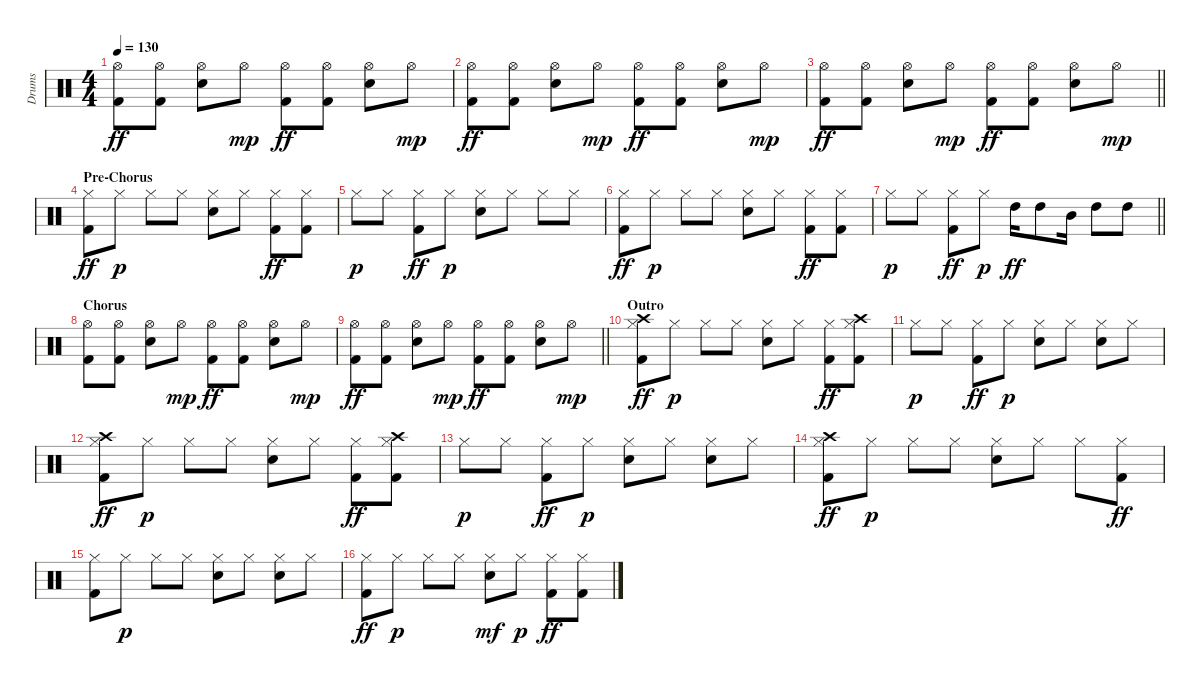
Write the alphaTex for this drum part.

\track ("Drums" "Drums") {instrument percussion}
\staff
\articulation defaults
\ts (4 4)
\tempo 130
\clef neutral
\ks c
("Hi-Hat (open)" "Kick (hit) 2").8{dy ff} ("Hi-Hat (open)" "Kick (hit) 2").8 ("Hi-Hat (open)" "Snare (hit) 2").8 "Hi-Hat (open)".8{dy mp} ("Hi-Hat (open)" "Kick (hit) 2").8{dy ff} ("Hi-Hat (open)" "Kick (hit) 2").8 ("Hi-Hat (open)" "Snare (hit) 2").8 "Hi-Hat (open)".8{dy mp} |
("Hi-Hat (open)" "Kick (hit) 2").8{dy ff} ("Hi-Hat (open)" "Kick (hit) 2").8 ("Hi-Hat (open)" "Snare (hit) 2").8 "Hi-Hat (open)".8{dy mp} ("Hi-Hat (open)" "Kick (hit) 2").8{dy ff} ("Hi-Hat (open)" "Kick (hit) 2").8 ("Hi-Hat (open)" "Snare (hit) 2").8 "Hi-Hat (open)".8{dy mp} |
\barLineRight lightlight
("Hi-Hat (open)" "Kick (hit) 2").8{dy ff} ("Hi-Hat (open)" "Kick (hit) 2").8 ("Hi-Hat (open)" "Snare (hit) 2").8 "Hi-Hat (open)".8{dy mp} ("Hi-Hat (open)" "Kick (hit) 2").8{dy ff} ("Hi-Hat (open)" "Kick (hit) 2").8 ("Hi-Hat (open)" "Snare (hit) 2").8 "Hi-Hat (open)".8{dy mp} |
\section ("" "Pre-Chorus")
("Hi-Hat (closed)" "Kick (hit) 2").8{dy ff} "Hi-Hat (closed)".8{dy p} "Hi-Hat (closed)".8 "Hi-Hat (closed)".8 ("Hi-Hat (closed)" "Snare (hit) 2").8 "Hi-Hat (closed)".8 ("Hi-Hat (closed)" "Kick (hit) 2").8{dy ff} ("Hi-Hat (closed)" "Kick (hit) 2").8 |
"Hi-Hat (closed)".8{dy p} "Hi-Hat (closed)".8 ("Hi-Hat (closed)" "Kick (hit) 2").8{dy ff} "Hi-Hat (closed)".8{dy p} ("Hi-Hat (closed)" "Snare (hit) 2").8 "Hi-Hat (closed)".8 "Hi-Hat (closed)".8 "Hi-Hat (closed)".8 |
("Hi-Hat (closed)" "Kick (hit) 2").8{dy ff} "Hi-Hat (closed)".8{dy p} "Hi-Hat (closed)".8 "Hi-Hat (closed)".8 ("Hi-Hat (closed)" "Snare (hit) 2").8 "Hi-Hat (closed)".8 ("Hi-Hat (closed)" "Kick (hit) 2").8{dy ff} ("Hi-Hat (closed)" "Kick (hit) 2").8 |
\barLineRight lightlight "Hi-Hat (closed)".8{dy p} "Hi-Hat (closed)".8
("Hi-Hat (closed)" "Kick (hit) 2").8{dy ff} "Hi-Hat (closed)".8{dy p} "High Tom (hit)".16{dy ff} "High Tom (hit)".8 "Mid Tom (hit)".16 "High Tom (hit)".8 "High Tom (hit)".8 |
\section ("" "Chorus")
("Hi-Hat (open)" "Kick (hit) 2").8 ("Hi-Hat (open)" "Kick (hit) 2").8 ("Hi-Hat (open)" "Snare (hit) 2").8 "Hi-Hat (open)".8{dy mp} ("Hi-Hat (open)" "Kick (hit) 2").8{dy ff} ("Hi-Hat (open)" "Kick (hit) 2").8 ("Hi-Hat (open)" "Snare (hit) 2").8 "Hi-Hat (open)".8{dy mp} |
\barLineRight lightlight
("Hi-Hat (open)" "Kick (hit) 2").8{dy ff} ("Hi-Hat (open)" "Kick (hit) 2").8 ("Hi-Hat (open)" "Snare (hit) 2").8 "Hi-Hat (open)".8{dy mp} ("Hi-Hat (open)" "Kick (hit) 2").8{dy ff} ("Hi-Hat (open)" "Kick (hit) 2").8 ("Hi-Hat (open)" "Snare (hit) 2").8 "Hi-Hat (open)".8{dy mp} |
\section ("" "Outro")
("Crash high (hit)" "Hi-Hat (closed)" "Kick (hit) 2").8{dy ff} "Hi-Hat (closed)".8{dy p} "Hi-Hat (closed)".8 "Hi-Hat (closed)".8 ("Hi-Hat (closed)" "Snare (hit) 2").8 "Hi-Hat (closed)".8 ("Hi-Hat (closed)" "Kick (hit) 2").8{dy ff} ("Crash high (hit)" "Hi-Hat (closed)" "Kick (hit) 2").8 |
"Hi-Hat (closed)".8{dy p} "Hi-Hat (closed)".8 ("Hi-Hat (closed)" "Kick (hit) 2").8{dy ff} "Hi-Hat (closed)".8{dy p} ("Hi-Hat (closed)" "Snare (hit) 2").8 "Hi-Hat (closed)".8 ("Hi-Hat (closed)" "Snare (hit) 2").8 "Hi-Hat (closed)".8 |
("Crash high (hit)" "Hi-Hat (closed)" "Kick (hit) 2").8{dy ff} "Hi-Hat (closed)".8{dy p} "Hi-Hat (closed)".8 "Hi-Hat (closed)".8 ("Hi-Hat (closed)" "Snare (hit) 2").8 "Hi-Hat (closed)".8 ("Hi-Hat (closed)" "Kick (hit) 2").8{dy ff} ("Crash high (hit)" "Hi-Hat (closed)" "Kick (hit) 2").8 |
"Hi-Hat (closed)".8{dy p} "Hi-Hat (closed)".8 ("Hi-Hat (closed)" "Kick (hit) 2").8{dy ff} "Hi-Hat (closed)".8{dy p} ("Hi-Hat (closed)" "Snare (hit) 2").8 "Hi-Hat (closed)".8 ("Hi-Hat (closed)" "Snare (hit) 2").8 "Hi-Hat (closed)".8 |
("Crash high (hit)" "Hi-Hat (closed)" "Kick (hit) 2").8{dy ff} "Hi-Hat (closed)".8{dy p} "Hi-Hat (closed)".8 "Hi-Hat (closed)".8 ("Hi-Hat (closed)" "Snare (hit) 2").8 "Hi-Hat (closed)".8 "Hi-Hat (closed)".8 ("Hi-Hat (closed)" "Kick (hit) 2").8{dy ff} |
("Hi-Hat (closed)" "Kick (hit) 2").8 "Hi-Hat (closed)".8{dy p} "Hi-Hat (closed)".8 "Hi-Hat (closed)".8 ("Hi-Hat (closed)" "Snare (hit) 2").8 "Hi-Hat (closed)".8 ("Hi-Hat (closed)" "Electric Snare (hit)").8 "Hi-Hat (closed)".8 |
("Hi-Hat (closed)" "Kick (hit) 2").8{dy ff} "Hi-Hat (closed)".8{dy p} "Hi-Hat (closed)".8 "Hi-Hat (closed)".8 ("Hi-Hat (closed)" "Electric Snare (hit)").8{dy mf} "Hi-Hat (closed)".8{dy p} ("Hi-Hat (closed)" "Kick (hit) 2").8{dy ff} ("Hi-Hat (closed)" "Kick (hit) 2").8
